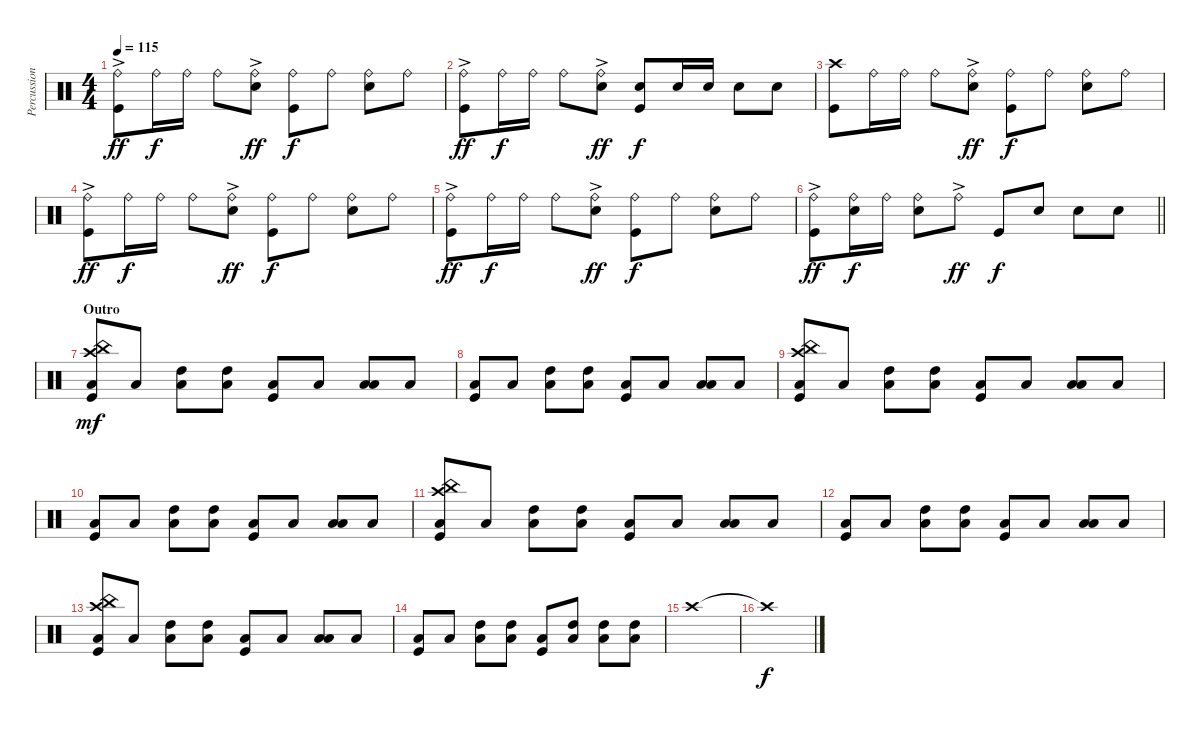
\track ("Percussion" "Percussion") {instrument percussion}
\staff {score}
\articulation defaults
\ts (4 4)
\tempo 115
\clef neutral
\ks c
("Ride (bell)"{ac} "Kick (hit)").8{dy ff} "Ride (bell)".16{dy f} "Ride (bell)".16 "Ride (bell)".8 ("Ride (bell)"{ac} "Snare (hit) 2").8{dy ff} ("Ride (bell)" "Kick (hit)").8{dy f} "Ride (bell)".8 ("Ride (bell)" "Snare (hit) 2").8 "Ride (bell)".8 |
("Ride (bell)"{ac} "Kick (hit)").8{dy ff} "Ride (bell)".16{dy f} "Ride (bell)".16 "Ride (bell)".8 ("Ride (bell)"{ac} "Snare (hit) 2").8{dy ff} ("Snare (hit) 2" "Kick (hit)").8{dy f} "Snare (hit) 2".16 "Snare (hit) 2".16 "Snare (hit) 2".8 "Snare (hit) 2".8 |
("Crash high (hit)" "Kick (hit)").8 "Ride (bell)".16 "Ride (bell)".16 "Ride (bell)".8 ("Ride (bell)"{ac} "Snare (hit) 2").8{dy ff} ("Ride (bell)" "Kick (hit)").8{dy f} "Ride (bell)".8 ("Ride (bell)" "Snare (hit) 2").8 "Ride (bell)".8 |
("Ride (bell)"{ac} "Kick (hit)").8{dy ff} "Ride (bell)".16{dy f} "Ride (bell)".16 "Ride (bell)".8 ("Ride (bell)"{ac} "Snare (hit) 2").8{dy ff} ("Ride (bell)" "Kick (hit)").8{dy f} "Ride (bell)".8 ("Ride (bell)" "Snare (hit) 2").8 "Ride (bell)".8 |
("Ride (bell)"{ac} "Kick (hit)").8{dy ff} "Ride (bell)".16{dy f} "Ride (bell)".16 "Ride (bell)".8 ("Ride (bell)"{ac} "Snare (hit) 2").8{dy ff} ("Ride (bell)" "Kick (hit)").8{dy f} "Ride (bell)".8 ("Ride (bell)" "Snare (hit) 2").8 "Ride (bell)".8 |
\barLineRight lightlight
("Ride (bell)"{ac} "Kick (hit)").8{dy ff} ("Ride (bell)" "Snare (hit) 2").16{dy f} "Ride (bell)".16 ("Ride (bell)" "Snare (hit) 2").8 "Ride (bell)"{ac}.8{dy ff} "Kick (hit)".8{dy f} "Snare (hit) 2".8 "Snare (hit) 2".8 "Snare (hit) 2".8 |
\section ("" "Outro")
("China (hit)" "Crash high (hit)" "Low Floor Tom (hit)" "Kick (hit)").8{dy mf volume 11} "Low Floor Tom (hit)".8 ("High Tom (hit)" "Low Floor Tom (hit)").8 ("High Tom (hit)" "Low Floor Tom (hit)").8 ("Low Floor Tom (hit)" "Kick (hit)").8 "Low Floor Tom (hit)".8 ("Low Tom (hit)" "Low Floor Tom (hit)").8 "Low Floor Tom (hit)".8 |
("Low Floor Tom (hit)" "Kick (hit)").8 "Low Floor Tom (hit)".8 ("High Tom (hit)" "Low Floor Tom (hit)").8 ("High Tom (hit)" "Low Floor Tom (hit)").8 ("Low Floor Tom (hit)" "Kick (hit)").8 "Low Floor Tom (hit)".8 ("Low Tom (hit)" "Low Floor Tom (hit)").8 "Low Floor Tom (hit)".8 |
("China (hit)" "Crash high (hit)" "Low Floor Tom (hit)" "Kick (hit)").8 "Low Floor Tom (hit)".8 ("High Tom (hit)" "Low Floor Tom (hit)").8 ("High Tom (hit)" "Low Floor Tom (hit)").8 ("Low Floor Tom (hit)" "Kick (hit)").8 "Low Floor Tom (hit)".8 ("Low Tom (hit)" "Low Floor Tom (hit)").8 "Low Floor Tom (hit)".8 |
("Low Floor Tom (hit)" "Kick (hit)").8 "Low Floor Tom (hit)".8 ("High Tom (hit)" "Low Floor Tom (hit)").8 ("High Tom (hit)" "Low Floor Tom (hit)").8 ("Low Floor Tom (hit)" "Kick (hit)").8 "Low Floor Tom (hit)".8 ("Low Tom (hit)" "Low Floor Tom (hit)").8 "Low Floor Tom (hit)".8 |
("China (hit)" "Crash high (hit)" "Low Floor Tom (hit)" "Kick (hit)").8{volume 11} "Low Floor Tom (hit)".8 ("High Tom (hit)" "Low Floor Tom (hit)").8 ("High Tom (hit)" "Low Floor Tom (hit)").8 ("Low Floor Tom (hit)" "Kick (hit)").8 "Low Floor Tom (hit)".8 ("Low Tom (hit)" "Low Floor Tom (hit)").8 "Low Floor Tom (hit)".8 |
("Low Floor Tom (hit)" "Kick (hit)").8 "Low Floor Tom (hit)".8 ("High Tom (hit)" "Low Floor Tom (hit)").8 ("High Tom (hit)" "Low Floor Tom (hit)").8 ("Low Floor Tom (hit)" "Kick (hit)").8 "Low Floor Tom (hit)".8 ("Low Tom (hit)" "Low Floor Tom (hit)").8 "Low Floor Tom (hit)".8 |
("China (hit)" "Crash high (hit)" "Low Floor Tom (hit)" "Kick (hit)").8 "Low Floor Tom (hit)".8 ("High Tom (hit)" "Low Floor Tom (hit)").8 ("High Tom (hit)" "Low Floor Tom (hit)").8 ("Low Floor Tom (hit)" "Kick (hit)").8 "Low Floor Tom (hit)".8 ("Low Tom (hit)" "Low Floor Tom (hit)").8 "Low Floor Tom (hit)".8 |
("Low Floor Tom (hit)" "Kick (hit)").8 "Low Floor Tom (hit)".8 ("High Tom (hit)" "Low Floor Tom (hit)").8 ("High Tom (hit)" "Low Floor Tom (hit)").8 ("Low Floor Tom (hit)" "Kick (hit)").8 ("High Tom (hit)" "Low Floor Tom (hit)").8 ("High Tom (hit)" "Low Floor Tom (hit)").8 ("High Tom (hit)" "Low Floor Tom (hit)").8 |
"Crash high (hit)".1 |
"Crash high (hit)"{t}.1{dy f}
